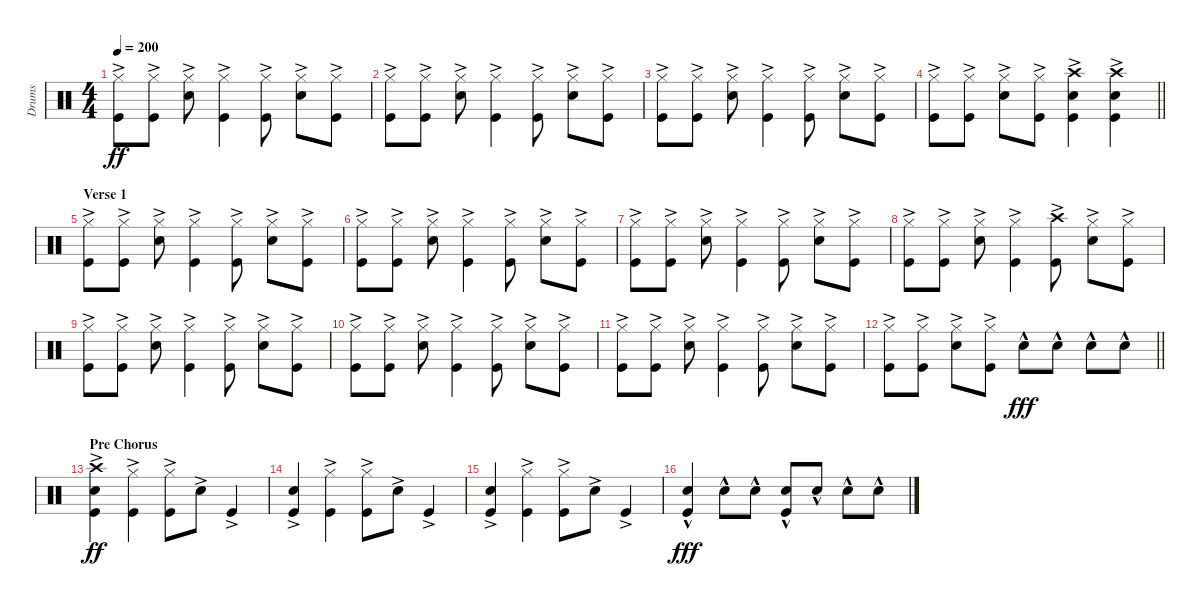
\track ("Drums" "Drums") {instrument percussion}
\staff {score}
\articulation defaults
\ts (4 4)
\tempo 200
\clef neutral
\ks c
("Hi-Hat (closed)"{ac} "Kick (hit)"{ac}).8{dy ff} ("Hi-Hat (closed)"{ac} "Kick (hit)"{ac}).8 ("Hi-Hat (closed)"{ac} "Snare (hit) 2"{ac}).8 ("Hi-Hat (closed)"{ac} "Kick (hit)"{ac}).4 ("Hi-Hat (closed)"{ac} "Kick (hit)"{ac}).8 ("Hi-Hat (closed)"{ac} "Snare (hit) 2"{ac}).8 ("Hi-Hat (closed)"{ac} "Kick (hit)"{ac}).8 |
("Hi-Hat (closed)"{ac} "Kick (hit)"{ac}).8 ("Hi-Hat (closed)"{ac} "Kick (hit)"{ac}).8 ("Hi-Hat (closed)"{ac} "Snare (hit) 2"{ac}).8 ("Hi-Hat (closed)"{ac} "Kick (hit)"{ac}).4 ("Hi-Hat (closed)"{ac} "Kick (hit)"{ac}).8 ("Hi-Hat (closed)"{ac} "Snare (hit) 2"{ac}).8 ("Hi-Hat (closed)"{ac} "Kick (hit)"{ac}).8 |
("Hi-Hat (closed)"{ac} "Kick (hit)"{ac}).8 ("Hi-Hat (closed)"{ac} "Kick (hit)"{ac}).8 ("Hi-Hat (closed)"{ac} "Snare (hit) 2"{ac}).8 ("Hi-Hat (closed)"{ac} "Kick (hit)"{ac}).4 ("Hi-Hat (closed)"{ac} "Kick (hit)"{ac}).8 ("Hi-Hat (closed)"{ac} "Snare (hit) 2"{ac}).8 ("Hi-Hat (closed)"{ac} "Kick (hit)"{ac}).8 |
\barLineRight lightlight
("Hi-Hat (closed)"{ac} "Kick (hit)"{ac}).8 ("Hi-Hat (closed)"{ac} "Kick (hit)"{ac}).8 ("Hi-Hat (closed)"{ac} "Snare (hit) 2"{ac}).8 ("Hi-Hat (closed)"{ac} "Kick (hit)"{ac}).8 ("Snare (hit) 2"{ac} "Crash high (hit)" "Kick (hit)"{ac}).4 ("Snare (hit) 2"{ac} "Crash high (hit)" "Kick (hit)"{ac}).4 |
\section ("" "Verse 1")
("Hi-Hat (closed)"{ac} "Kick (hit)"{ac}).8 ("Hi-Hat (closed)"{ac} "Kick (hit)"{ac}).8 ("Hi-Hat (closed)"{ac} "Snare (hit) 2"{ac}).8 ("Hi-Hat (closed)"{ac} "Kick (hit)"{ac}).4 ("Hi-Hat (closed)"{ac} "Kick (hit)"{ac}).8 ("Hi-Hat (closed)"{ac} "Snare (hit) 2"{ac}).8 ("Hi-Hat (closed)"{ac} "Kick (hit)"{ac}).8 |
("Hi-Hat (closed)"{ac} "Kick (hit)"{ac}).8 ("Hi-Hat (closed)"{ac} "Kick (hit)"{ac}).8 ("Hi-Hat (closed)"{ac} "Snare (hit) 2"{ac}).8 ("Hi-Hat (closed)"{ac} "Kick (hit)"{ac}).4 ("Hi-Hat (closed)"{ac} "Kick (hit)"{ac}).8 ("Hi-Hat (closed)"{ac} "Snare (hit) 2"{ac}).8 ("Hi-Hat (closed)"{ac} "Kick (hit)"{ac}).8 |
("Hi-Hat (closed)"{ac} "Kick (hit)"{ac}).8 ("Hi-Hat (closed)"{ac} "Kick (hit)"{ac}).8 ("Hi-Hat (closed)"{ac} "Snare (hit) 2"{ac}).8 ("Hi-Hat (closed)"{ac} "Kick (hit)"{ac}).4 ("Hi-Hat (closed)"{ac} "Kick (hit)"{ac}).8 ("Hi-Hat (closed)"{ac} "Snare (hit) 2"{ac}).8 ("Hi-Hat (closed)"{ac} "Kick (hit)"{ac}).8 |
("Hi-Hat (closed)"{ac} "Kick (hit)"{ac}).8 ("Hi-Hat (closed)"{ac} "Kick (hit)"{ac}).8 ("Hi-Hat (closed)"{ac} "Snare (hit) 2"{ac}).8 ("Hi-Hat (closed)"{ac} "Kick (hit)"{ac}).4 ("Crash high (hit)" "Kick (hit)"{ac}).8 ("Hi-Hat (closed)"{ac} "Snare (hit) 2"{ac}).8 ("Hi-Hat (closed)" "Kick (hit)"{ac}).8 |
("Hi-Hat (closed)"{ac} "Kick (hit)"{ac}).8 ("Hi-Hat (closed)"{ac} "Kick (hit)"{ac}).8 ("Hi-Hat (closed)"{ac} "Snare (hit) 2"{ac}).8 ("Hi-Hat (closed)"{ac} "Kick (hit)"{ac}).4 ("Hi-Hat (closed)"{ac} "Kick (hit)"{ac}).8 ("Hi-Hat (closed)"{ac} "Snare (hit) 2"{ac}).8 ("Hi-Hat (closed)"{ac} "Kick (hit)"{ac}).8 |
("Hi-Hat (closed)"{ac} "Kick (hit)"{ac}).8 ("Hi-Hat (closed)"{ac} "Kick (hit)"{ac}).8 ("Hi-Hat (closed)"{ac} "Snare (hit) 2"{ac}).8 ("Hi-Hat (closed)"{ac} "Kick (hit)"{ac}).4 ("Hi-Hat (closed)"{ac} "Kick (hit)"{ac}).8 ("Hi-Hat (closed)"{ac} "Snare (hit) 2"{ac}).8 ("Hi-Hat (closed)"{ac} "Kick (hit)"{ac}).8 |
("Hi-Hat (closed)"{ac} "Kick (hit)"{ac}).8 ("Hi-Hat (closed)"{ac} "Kick (hit)"{ac}).8 ("Hi-Hat (closed)"{ac} "Snare (hit) 2"{ac}).8 ("Hi-Hat (closed)"{ac} "Kick (hit)"{ac}).4 ("Hi-Hat (closed)"{ac} "Kick (hit)"{ac}).8 ("Hi-Hat (closed)"{ac} "Snare (hit) 2"{ac}).8 ("Hi-Hat (closed)"{ac} "Kick (hit)"{ac}).8 |
\barLineRight lightlight
("Hi-Hat (closed)"{ac} "Kick (hit)"{ac}).8 ("Hi-Hat (closed)"{ac} "Kick (hit)"{ac}).8 ("Hi-Hat (closed)"{ac} "Snare (hit) 2"{ac}).8 ("Hi-Hat (closed)"{ac} "Kick (hit)"{ac}).8 "Snare (hit) 2"{hac}.8{dy fff} "Snare (hit) 2"{hac}.8 "Snare (hit) 2"{hac}.8 "Snare (hit) 2"{hac}.8 |
\section ("" "Pre Chorus")
("Kick (hit)"{ac} "Crash high (hit)"{ac} "Snare (hit) 2"{ac}).4{dy ff} ("Hi-Hat (closed)"{ac} "Kick (hit)"{ac}).4 ("Hi-Hat (closed)"{ac} "Kick (hit)"{ac}).8 "Snare (hit) 2"{ac}.8 "Kick (hit)"{ac}.4 |
("Kick (hit)"{ac} "Snare (hit) 2"{ac}).4 ("Hi-Hat (closed)"{ac} "Kick (hit)"{ac}).4 ("Hi-Hat (closed)"{ac} "Kick (hit)"{ac}).8 "Snare (hit) 2"{ac}.8 "Kick (hit)"{ac}.4 |
("Kick (hit)"{ac} "Snare (hit) 2"{ac}).4 ("Hi-Hat (closed)"{ac} "Kick (hit)"{ac}).4 ("Hi-Hat (closed)"{ac} "Kick (hit)"{ac}).8 "Snare (hit) 2"{ac}.8 "Kick (hit)"{ac}.4 |
("Kick (hit)"{hac} "Snare (hit) 2"{hac}).4{dy fff} "Snare (hit) 2"{hac}.8 "Snare (hit) 2"{hac}.8 ("Snare (hit) 2"{hac} "Kick (hit)"{hac}).8 "Snare (hit) 2"{hac}.8 "Snare (hit) 2"{hac}.8 "Snare (hit) 2"{hac}.8
